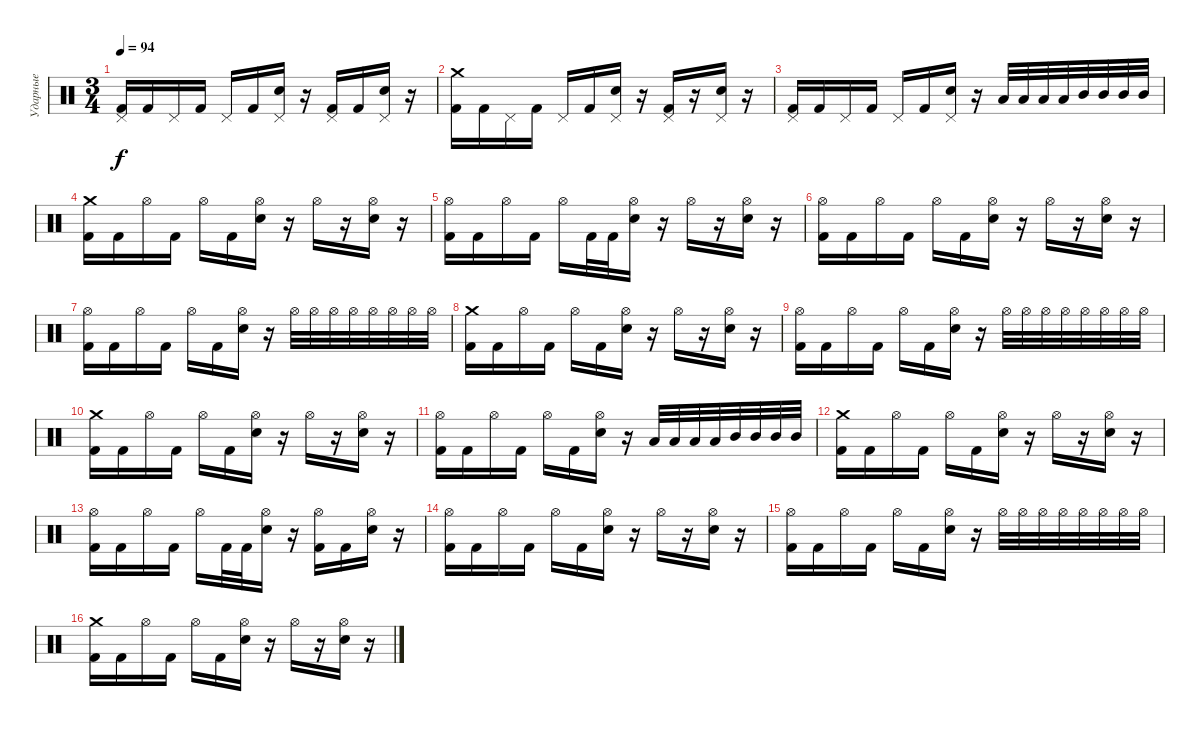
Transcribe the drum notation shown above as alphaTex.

\track ("Ударные" "Ударные") {instrument percussion}
\staff {score}
\articulation defaults
\ts (3 4)
\tempo 94
\clef neutral
\ks c
("Pedal Hi-Hat (hit)" "Kick (hit) 2").16{dy f} "Kick (hit) 2".16 "Pedal Hi-Hat (hit)".16 "Kick (hit) 2".16 "Pedal Hi-Hat (hit)".16 "Kick (hit) 2".16 ("Pedal Hi-Hat (hit)" "Electric Snare (hit)").16 r.16 ("Pedal Hi-Hat (hit)" "Kick (hit) 2").16 "Kick (hit) 2".16 ("Pedal Hi-Hat (hit)" "Electric Snare (hit)").16 r.16 |
("Crash medium (hit)" "Kick (hit) 2").16 "Kick (hit) 2".16 "Pedal Hi-Hat (hit)".16 "Kick (hit) 2".16 "Pedal Hi-Hat (hit)".16 "Kick (hit) 2".16 ("Pedal Hi-Hat (hit)" "Electric Snare (hit)").16 r.16 ("Pedal Hi-Hat (hit)" "Kick (hit) 2").16 r.16 ("Pedal Hi-Hat (hit)" "Electric Snare (hit)").16 r.16 |
("Pedal Hi-Hat (hit)" "Kick (hit) 2").16 "Kick (hit) 2".16 "Pedal Hi-Hat (hit)".16 "Kick (hit) 2".16 "Pedal Hi-Hat (hit)".16 "Kick (hit) 2".16 ("Pedal Hi-Hat (hit)" "Electric Snare (hit)").16 r.16 "Low Tom (hit)".32 "Low Tom (hit)".32 "Low Tom (hit)".32 "Low Tom (hit)".32 "Mid Tom (hit)".32 "Mid Tom (hit)".32 "Mid Tom (hit)".32 "Mid Tom (hit)".32 |
("Crash medium (hit)" "Kick (hit) 2").16 "Kick (hit) 2".16 "Hi-Hat (open)".16 "Kick (hit) 2".16 "Hi-Hat (open)".16 "Kick (hit) 2".16 ("Hi-Hat (open)" "Electric Snare (hit)").16 r.16 "Hi-Hat (open)".16 r.16 ("Hi-Hat (open)" "Electric Snare (hit)").16 r.16 |
("Hi-Hat (open)" "Kick (hit) 2").16 "Kick (hit) 2".16 "Hi-Hat (open)".16 "Kick (hit) 2".16 "Hi-Hat (open)".16 "Kick (hit) 2".32 "Kick (hit) 2".32 ("Hi-Hat (open)" "Electric Snare (hit)").16 r.16 "Hi-Hat (open)".16 r.16 ("Hi-Hat (open)" "Electric Snare (hit)").16 r.16 |
("Hi-Hat (open)" "Kick (hit) 2").16 "Kick (hit) 2".16 "Hi-Hat (open)".16 "Kick (hit) 2".16 "Hi-Hat (open)".16 "Kick (hit) 2".16 ("Hi-Hat (open)" "Electric Snare (hit)").16 r.16 "Hi-Hat (open)".16 r.16 ("Hi-Hat (open)" "Electric Snare (hit)").16 r.16 |
("Hi-Hat (open)" "Kick (hit) 2").16 "Kick (hit) 2".16 "Hi-Hat (open)".16 "Kick (hit) 2".16 "Hi-Hat (open)".16 "Kick (hit) 2".16 ("Hi-Hat (open)" "Electric Snare (hit)").16 r.16 "Hi-Hat (open)".32 "Hi-Hat (open)".32 "Hi-Hat (open)".32 "Hi-Hat (open)".32 "Hi-Hat (open)".32 "Hi-Hat (open)".32 "Hi-Hat (open)".32 "Hi-Hat (open)".32 |
("Crash medium (hit)" "Kick (hit) 2").16 "Kick (hit) 2".16 "Hi-Hat (open)".16 "Kick (hit) 2".16 "Hi-Hat (open)".16 "Kick (hit) 2".16 ("Hi-Hat (open)" "Electric Snare (hit)").16 r.16 "Hi-Hat (open)".16 r.16 ("Hi-Hat (open)" "Electric Snare (hit)").16 r.16 |
("Hi-Hat (open)" "Kick (hit) 2").16 "Kick (hit) 2".16 "Hi-Hat (open)".16 "Kick (hit) 2".16 "Hi-Hat (open)".16 "Kick (hit) 2".16 ("Hi-Hat (open)" "Electric Snare (hit)").16 r.16 "Hi-Hat (open)".32 "Hi-Hat (open)".32 "Hi-Hat (open)".32 "Hi-Hat (open)".32 "Hi-Hat (open)".32 "Hi-Hat (open)".32 "Hi-Hat (open)".32 "Hi-Hat (open)".32 |
("Crash medium (hit)" "Kick (hit) 2").16 "Kick (hit) 2".16 "Hi-Hat (open)".16 "Kick (hit) 2".16 "Hi-Hat (open)".16 "Kick (hit) 2".16 ("Hi-Hat (open)" "Electric Snare (hit)").16 r.16 "Hi-Hat (open)".16 r.16 ("Hi-Hat (open)" "Electric Snare (hit)").16 r.16 |
("Hi-Hat (open)" "Kick (hit) 2").16 "Kick (hit) 2".16 "Hi-Hat (open)".16 "Kick (hit) 2".16 "Hi-Hat (open)".16 "Kick (hit) 2".16 ("Hi-Hat (open)" "Electric Snare (hit)").16 r.16 "Low Tom (hit)".32 "Low Tom (hit)".32 "Low Tom (hit)".32 "Low Tom (hit)".32 "Mid Tom (hit)".32 "Mid Tom (hit)".32 "Mid Tom (hit)".32 "Mid Tom (hit)".32 |
("Crash medium (hit)" "Kick (hit) 2").16 "Kick (hit) 2".16 "Hi-Hat (open)".16 "Kick (hit) 2".16 "Hi-Hat (open)".16 "Kick (hit) 2".16 ("Hi-Hat (open)" "Electric Snare (hit)").16 r.16 "Hi-Hat (open)".16 r.16 ("Hi-Hat (open)" "Electric Snare (hit)").16 r.16 |
("Hi-Hat (open)" "Kick (hit) 2").16 "Kick (hit) 2".16 "Hi-Hat (open)".16 "Kick (hit) 2".16 "Hi-Hat (open)".16 "Kick (hit) 2".32 "Kick (hit) 2".32 ("Hi-Hat (open)" "Electric Snare (hit)").16 r.16 ("Hi-Hat (open)" "Kick (hit) 2").16 "Kick (hit) 2".16 ("Hi-Hat (open)" "Electric Snare (hit)").16 r.16 |
("Hi-Hat (open)" "Kick (hit) 2").16 "Kick (hit) 2".16 "Hi-Hat (open)".16 "Kick (hit) 2".16 "Hi-Hat (open)".16 "Kick (hit) 2".16 ("Hi-Hat (open)" "Electric Snare (hit)").16 r.16 "Hi-Hat (open)".16 r.16 ("Hi-Hat (open)" "Electric Snare (hit)").16 r.16 |
("Hi-Hat (open)" "Kick (hit) 2").16 "Kick (hit) 2".16 "Hi-Hat (open)".16 "Kick (hit) 2".16 "Hi-Hat (open)".16 "Kick (hit) 2".16 ("Hi-Hat (open)" "Electric Snare (hit)").16 r.16 "Hi-Hat (open)".32 "Hi-Hat (open)".32 "Hi-Hat (open)".32 "Hi-Hat (open)".32 "Hi-Hat (open)".32 "Hi-Hat (open)".32 "Hi-Hat (open)".32 "Hi-Hat (open)".32 |
("Crash medium (hit)" "Kick (hit) 2").16 "Kick (hit) 2".16 "Hi-Hat (open)".16 "Kick (hit) 2".16 "Hi-Hat (open)".16 "Kick (hit) 2".16 ("Hi-Hat (open)" "Electric Snare (hit)").16 r.16 "Hi-Hat (open)".16 r.16 ("Hi-Hat (open)" "Electric Snare (hit)").16 r.16
